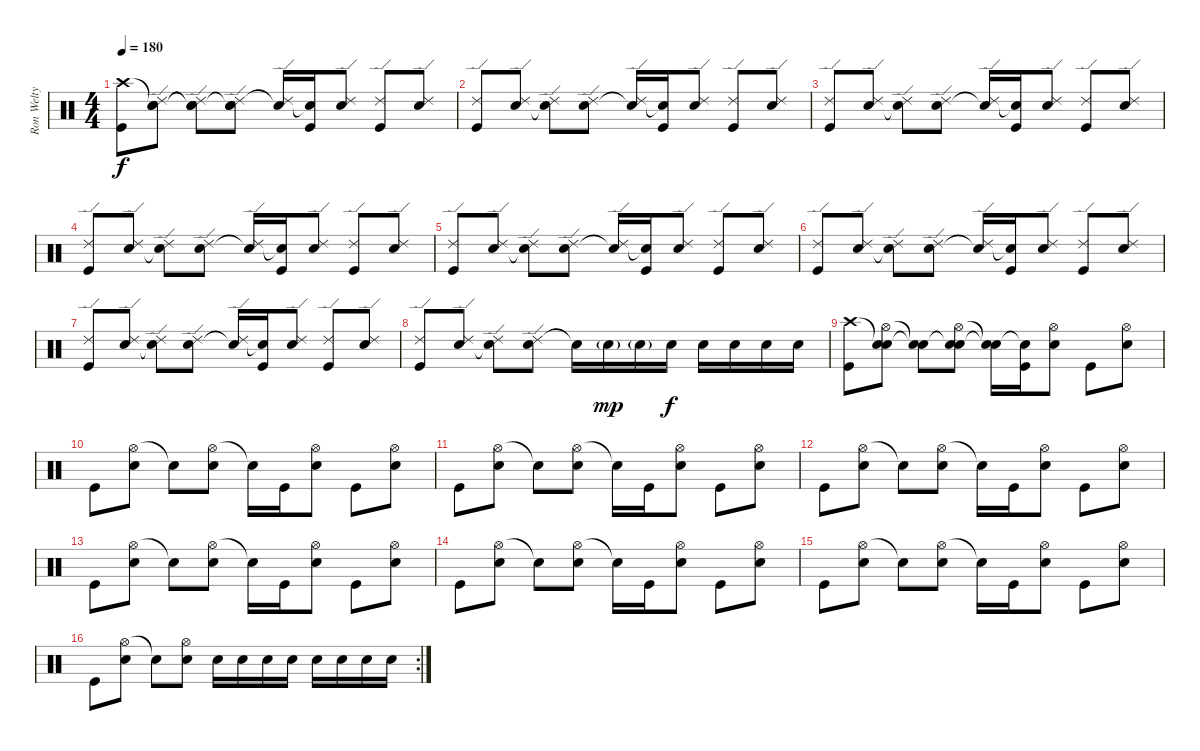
\track ("Ron Welty" "Ron Welty") {instrument percussion}
\staff {score}
\articulation defaults
\ts (4 4)
\tempo 180
\clef neutral
\ks c
("Crash high (hit)" "Kick (hit)").8{dy f} ("Snare (hit)"{t} "Ride (edge) 2" "Snare (hit) 2").8 ("Snare (hit)"{t} "Ride (edge) 2" "Snare (hit)"{t}).8 ("Snare (hit)"{t} "Ride (edge) 2" "Snare (hit) 2").8 ("Ride (edge) 2" "Snare (hit)"{t}).16 ("Snare (hit)"{t} "Kick (hit)").16 ("Ride (edge) 2" "Snare (hit) 2").8 ("Ride (edge) 2" "Kick (hit)").8 ("Ride (edge) 2" "Snare (hit) 2").8 |
("Ride (edge) 2" "Kick (hit)").8 ("Ride (edge) 2" "Snare (hit) 2").8 ("Ride (edge) 2" "Snare (hit)"{t}).8 ("Ride (edge) 2" "Snare (hit) 2").8 ("Ride (edge) 2" "Snare (hit)"{t}).16 ("Snare (hit)"{t} "Kick (hit)").16 ("Ride (edge) 2" "Snare (hit) 2").8 ("Ride (edge) 2" "Kick (hit)").8 ("Ride (edge) 2" "Snare (hit) 2").8 |
("Ride (edge) 2" "Kick (hit)").8 ("Ride (edge) 2" "Snare (hit) 2").8 ("Ride (edge) 2" "Snare (hit)"{t}).8 ("Ride (edge) 2" "Snare (hit) 2").8 ("Ride (edge) 2" "Snare (hit)"{t}).16 ("Snare (hit)"{t} "Kick (hit)").16 ("Ride (edge) 2" "Snare (hit) 2").8 ("Ride (edge) 2" "Kick (hit)").8 ("Ride (edge) 2" "Snare (hit) 2").8 |
("Ride (edge) 2" "Kick (hit)").8 ("Ride (edge) 2" "Snare (hit) 2").8 ("Ride (edge) 2" "Snare (hit)"{t}).8 ("Ride (edge) 2" "Snare (hit) 2").8 ("Ride (edge) 2" "Snare (hit)"{t}).16 ("Snare (hit)"{t} "Kick (hit)").16 ("Ride (edge) 2" "Snare (hit) 2").8 ("Ride (edge) 2" "Kick (hit)").8 ("Ride (edge) 2" "Snare (hit) 2").8 |
("Ride (edge) 2" "Kick (hit)").8 ("Ride (edge) 2" "Snare (hit) 2").8 ("Ride (edge) 2" "Snare (hit)"{t}).8 ("Ride (edge) 2" "Snare (hit) 2").8 ("Ride (edge) 2" "Snare (hit)"{t}).16 ("Snare (hit)"{t} "Kick (hit)").16 ("Ride (edge) 2" "Snare (hit) 2").8 ("Ride (edge) 2" "Kick (hit)").8 ("Ride (edge) 2" "Snare (hit) 2").8 |
("Ride (edge) 2" "Kick (hit)").8 ("Ride (edge) 2" "Snare (hit) 2").8 ("Ride (edge) 2" "Snare (hit)"{t}).8 ("Ride (edge) 2" "Snare (hit) 2").8 ("Ride (edge) 2" "Snare (hit)"{t}).16 ("Snare (hit)"{t} "Kick (hit)").16 ("Ride (edge) 2" "Snare (hit) 2").8 ("Ride (edge) 2" "Kick (hit)").8 ("Ride (edge) 2" "Snare (hit) 2").8 |
("Ride (edge) 2" "Kick (hit)").8 ("Ride (edge) 2" "Snare (hit) 2").8 ("Ride (edge) 2" "Snare (hit)"{t}).8 ("Ride (edge) 2" "Snare (hit) 2").8 ("Ride (edge) 2" "Snare (hit)"{t}).16 ("Snare (hit)"{t} "Kick (hit)").16 ("Ride (edge) 2" "Snare (hit) 2").8 ("Ride (edge) 2" "Kick (hit)").8 ("Ride (edge) 2" "Snare (hit) 2").8 |
("Ride (edge) 2" "Kick (hit)").8 ("Ride (edge) 2" "Snare (hit) 2").8 ("Ride (edge) 2" "Snare (hit)"{t}).8 ("Ride (edge) 2" "Snare (hit) 2").8 "Snare (hit)"{t}.16 "Snare (hit) 2"{g}.16{dy mp} "Snare (hit) 2"{g}.16 "Snare (hit) 2".16{dy f} "Snare (hit) 2".16 "Snare (hit) 2".16 "Snare (hit) 2".16 "Snare (hit) 2".16 |
("Crash high (hit)" "Kick (hit)").8 ("Snare (hit)"{t} "Hi-Hat (open)" "Snare (hit) 2").8 ("Snare (hit)"{t} "Snare (hit)"{t}).8 ("Snare (hit)"{t} "Hi-Hat (open)" "Snare (hit) 2").8 ("Snare (hit)"{t} "Snare (hit)"{t}).16 ("Snare (hit)"{t} "Kick (hit)").16 ("Hi-Hat (open)" "Snare (hit) 2").8 "Kick (hit)".8 ("Hi-Hat (open)" "Snare (hit) 2").8 |
"Kick (hit)".8 ("Hi-Hat (open)" "Snare (hit) 2").8 "Snare (hit)"{t}.8 ("Hi-Hat (open)" "Snare (hit) 2").8 "Snare (hit)"{t}.16 "Kick (hit)".16 ("Hi-Hat (open)" "Snare (hit) 2").8 "Kick (hit)".8 ("Hi-Hat (open)" "Snare (hit) 2").8 |
"Kick (hit)".8 ("Hi-Hat (open)" "Snare (hit) 2").8 "Snare (hit)"{t}.8 ("Hi-Hat (open)" "Snare (hit) 2").8 "Snare (hit)"{t}.16 "Kick (hit)".16 ("Hi-Hat (open)" "Snare (hit) 2").8 "Kick (hit)".8 ("Hi-Hat (open)" "Snare (hit) 2").8 |
"Kick (hit)".8 ("Hi-Hat (open)" "Snare (hit) 2").8 "Snare (hit)"{t}.8 ("Hi-Hat (open)" "Snare (hit) 2").8 "Snare (hit)"{t}.16 "Kick (hit)".16 ("Hi-Hat (open)" "Snare (hit) 2").8 "Kick (hit)".8 ("Hi-Hat (open)" "Snare (hit) 2").8 |
"Kick (hit)".8 ("Hi-Hat (open)" "Snare (hit) 2").8 "Snare (hit)"{t}.8 ("Hi-Hat (open)" "Snare (hit) 2").8 "Snare (hit)"{t}.16 "Kick (hit)".16 ("Hi-Hat (open)" "Snare (hit) 2").8 "Kick (hit)".8 ("Hi-Hat (open)" "Snare (hit) 2").8 |
"Kick (hit)".8 ("Hi-Hat (open)" "Snare (hit) 2").8 "Snare (hit)"{t}.8 ("Hi-Hat (open)" "Snare (hit) 2").8 "Snare (hit)"{t}.16 "Kick (hit)".16 ("Hi-Hat (open)" "Snare (hit) 2").8 "Kick (hit)".8 ("Hi-Hat (open)" "Snare (hit) 2").8 |
"Kick (hit)".8 ("Hi-Hat (open)" "Snare (hit) 2").8 "Snare (hit)"{t}.8 ("Hi-Hat (open)" "Snare (hit) 2").8 "Snare (hit)"{t}.16 "Kick (hit)".16 ("Hi-Hat (open)" "Snare (hit) 2").8 "Kick (hit)".8 ("Hi-Hat (open)" "Snare (hit) 2").8 |
\rc 2 "Kick (hit)".8
("Hi-Hat (open)" "Snare (hit) 2").8 "Snare (hit)"{t}.8 ("Hi-Hat (open)" "Snare (hit) 2").8 "Snare (hit) 2".16 "Snare (hit) 2".16 "Snare (hit) 2".16 "Snare (hit) 2".16 "Snare (hit) 2".16 "Snare (hit) 2".16 "Snare (hit) 2".16 "Snare (hit) 2".16
